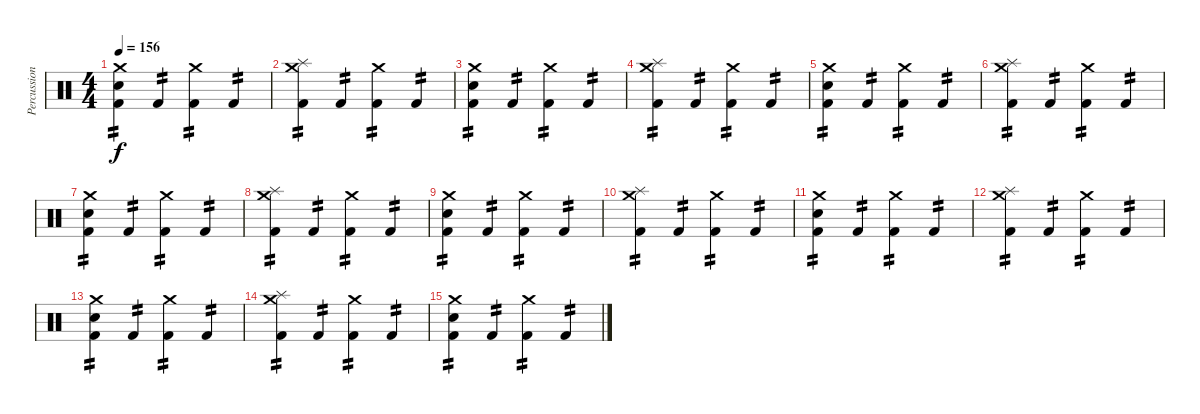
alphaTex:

\track ("Percussion" "Percussion") {instrument percussion}
\staff {score}
\articulation defaults
\ts (4 4)
\tempo 156
\clef neutral
\ks c
("Crash medium (hit)" "Snare (hit) 2" "Kick (hit) 2").4{tp 2 dy f} "Kick (hit) 2".4{tp 2} ("Crash medium (hit)" "Kick (hit) 2").4{tp 2} "Kick (hit) 2".4{tp 2} |
("Crash medium (hit)" "Splash (hit)" "Kick (hit) 2").4{tp 2} "Kick (hit) 2".4{tp 2} ("Crash medium (hit)" "Kick (hit) 2").4{tp 2} "Kick (hit) 2".4{tp 2} |
("Crash medium (hit)" "Snare (hit) 2" "Kick (hit) 2").4{tp 2} "Kick (hit) 2".4{tp 2} ("Crash medium (hit)" "Kick (hit) 2").4{tp 2} "Kick (hit) 2".4{tp 2} |
("Crash medium (hit)" "Splash (hit)" "Kick (hit) 2").4{tp 2} "Kick (hit) 2".4{tp 2} ("Crash medium (hit)" "Kick (hit) 2").4{tp 2} "Kick (hit) 2".4{tp 2} |
("Crash medium (hit)" "Snare (hit) 2" "Kick (hit) 2").4{tp 2} "Kick (hit) 2".4{tp 2} ("Crash medium (hit)" "Kick (hit) 2").4{tp 2} "Kick (hit) 2".4{tp 2} |
("Crash medium (hit)" "Splash (hit)" "Kick (hit) 2").4{tp 2} "Kick (hit) 2".4{tp 2} ("Crash medium (hit)" "Kick (hit) 2").4{tp 2} "Kick (hit) 2".4{tp 2} |
("Crash medium (hit)" "Snare (hit) 2" "Kick (hit) 2").4{tp 2} "Kick (hit) 2".4{tp 2} ("Crash medium (hit)" "Kick (hit) 2").4{tp 2} "Kick (hit) 2".4{tp 2} |
("Crash medium (hit)" "Splash (hit)" "Kick (hit) 2").4{tp 2} "Kick (hit) 2".4{tp 2} ("Crash medium (hit)" "Kick (hit) 2").4{tp 2} "Kick (hit) 2".4{tp 2} |
("Crash medium (hit)" "Snare (hit) 2" "Kick (hit) 2").4{tp 2} "Kick (hit) 2".4{tp 2} ("Crash medium (hit)" "Kick (hit) 2").4{tp 2} "Kick (hit) 2".4{tp 2} |
("Crash medium (hit)" "Splash (hit)" "Kick (hit) 2").4{tp 2} "Kick (hit) 2".4{tp 2} ("Crash medium (hit)" "Kick (hit) 2").4{tp 2} "Kick (hit) 2".4{tp 2} |
("Crash medium (hit)" "Snare (hit) 2" "Kick (hit) 2").4{tp 2} "Kick (hit) 2".4{tp 2} ("Crash medium (hit)" "Kick (hit) 2").4{tp 2} "Kick (hit) 2".4{tp 2} |
("Crash medium (hit)" "Splash (hit)" "Kick (hit) 2").4{tp 2} "Kick (hit) 2".4{tp 2} ("Crash medium (hit)" "Kick (hit) 2").4{tp 2} "Kick (hit) 2".4{tp 2} |
("Crash medium (hit)" "Snare (hit) 2" "Kick (hit) 2").4{tp 2} "Kick (hit) 2".4{tp 2} ("Crash medium (hit)" "Kick (hit) 2").4{tp 2} "Kick (hit) 2".4{tp 2} |
("Crash medium (hit)" "Splash (hit)" "Kick (hit) 2").4{tp 2} "Kick (hit) 2".4{tp 2} ("Crash medium (hit)" "Kick (hit) 2").4{tp 2} "Kick (hit) 2".4{tp 2} |
("Crash medium (hit)" "Snare (hit) 2" "Kick (hit) 2").4{tp 2} "Kick (hit) 2".4{tp 2} ("Crash medium (hit)" "Kick (hit) 2").4{tp 2} "Kick (hit) 2".4{tp 2}
